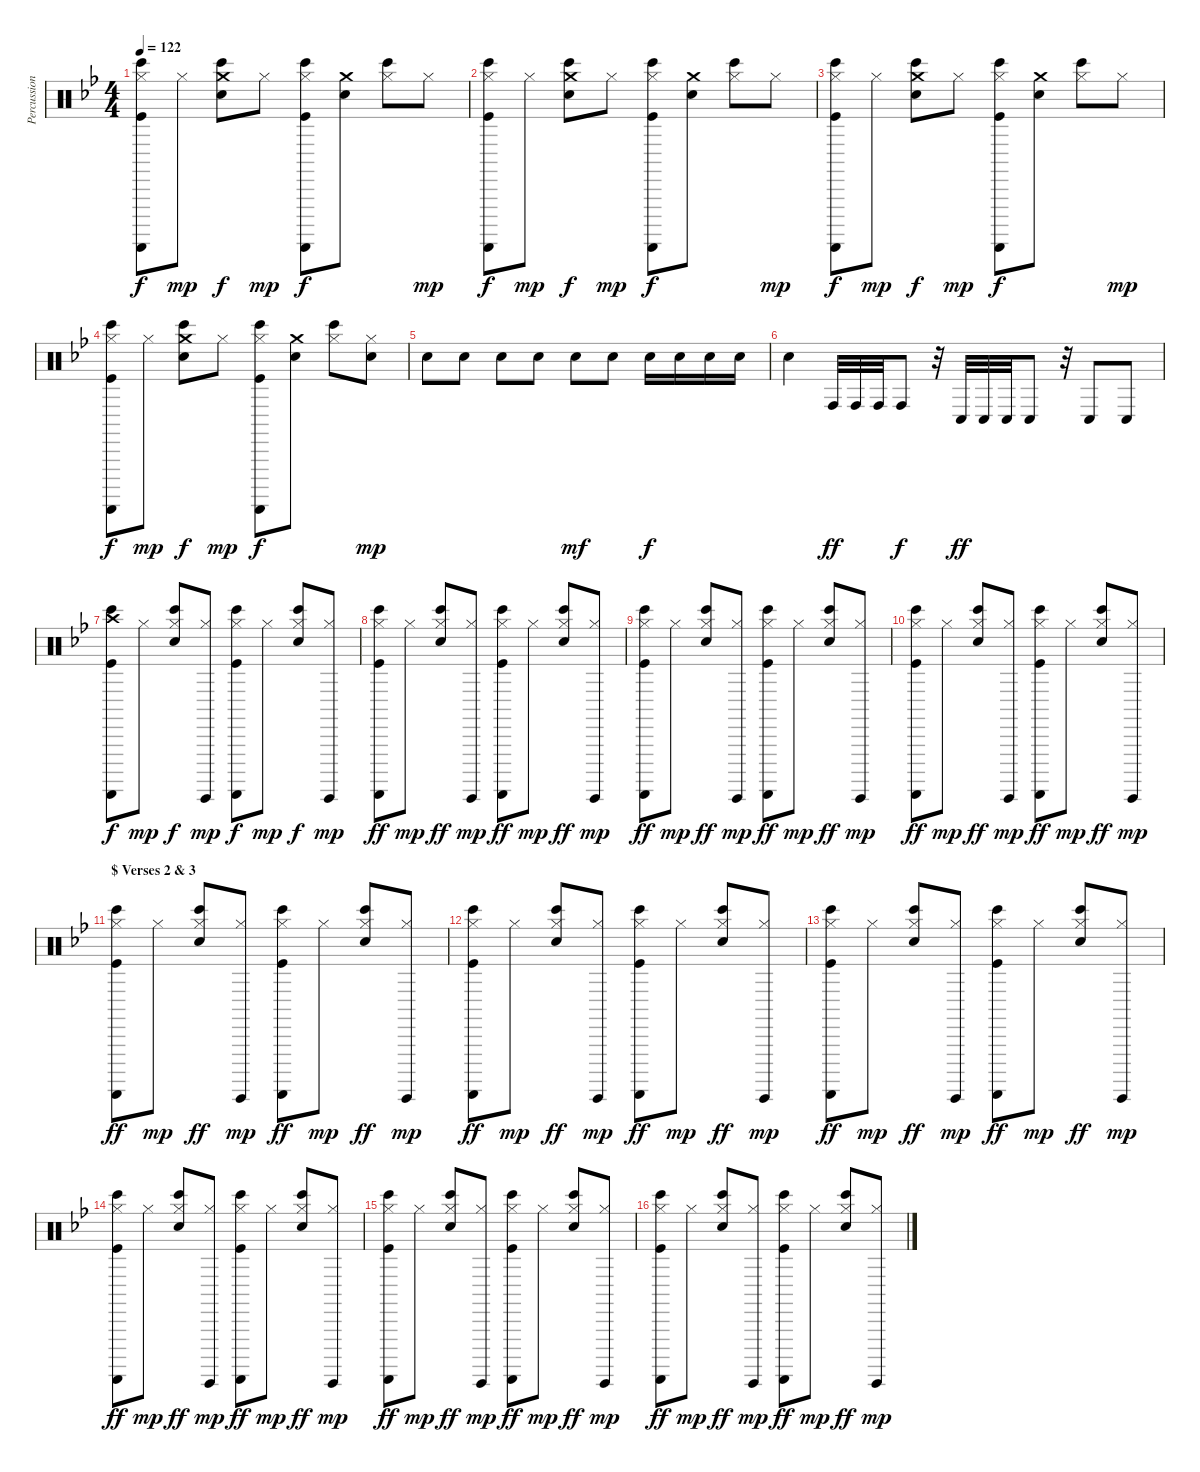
\track ("Percussions" "Percussion") {instrument percussion}
\staff {score}
\articulation defaults
\ts (4 4)
\tempo 122
\clef neutral
\ks bb
("Hi-Hat (closed)" "Bongo High (hit)" "Guiro (scrap-return)" "Kick (hit)").8{dy f} "Hi-Hat (closed)".8{dy mp} ("Crash medium (hit)" "Bongo High (hit)" "Snare (hit) 2").8{dy f} "Hi-Hat (closed)".8{dy mp} ("Hi-Hat (closed)" "Bongo High (hit)" "Guiro (scrap-return)" "Kick (hit)").8{dy f} ("Crash medium (hit)" "Snare (hit) 2").8 ("Hi-Hat (closed)" "Bongo High (hit)").8 "Hi-Hat (closed)".8{dy mp} |
("Hi-Hat (closed)" "Bongo High (hit)" "Guiro (scrap-return)" "Kick (hit)").8{dy f} "Hi-Hat (closed)".8{dy mp} ("Crash medium (hit)" "Bongo High (hit)" "Snare (hit) 2").8{dy f} "Hi-Hat (closed)".8{dy mp} ("Hi-Hat (closed)" "Bongo High (hit)" "Guiro (scrap-return)" "Kick (hit)").8{dy f} ("Crash medium (hit)" "Snare (hit) 2").8 ("Hi-Hat (closed)" "Bongo High (hit)").8 "Hi-Hat (closed)".8{dy mp} |
("Hi-Hat (closed)" "Bongo High (hit)" "Guiro (scrap-return)" "Kick (hit)").8{dy f} "Hi-Hat (closed)".8{dy mp} ("Crash medium (hit)" "Bongo High (hit)" "Snare (hit) 2").8{dy f} "Hi-Hat (closed)".8{dy mp} ("Hi-Hat (closed)" "Bongo High (hit)" "Guiro (scrap-return)" "Kick (hit)").8{dy f} ("Crash medium (hit)" "Snare (hit) 2").8 ("Hi-Hat (closed)" "Bongo High (hit)").8 "Hi-Hat (closed)".8{dy mp} |
("Hi-Hat (closed)" "Bongo High (hit)" "Guiro (scrap-return)" "Kick (hit)").8{dy f} "Hi-Hat (closed)".8{dy mp} ("Crash medium (hit)" "Bongo High (hit)" "Snare (hit) 2").8{dy f} "Hi-Hat (closed)".8{dy mp} ("Hi-Hat (closed)" "Bongo High (hit)" "Guiro (scrap-return)" "Kick (hit)").8{dy f} ("Crash medium (hit)" "Snare (hit) 2").8 ("Hi-Hat (closed)" "Bongo High (hit)").8 ("Hi-Hat (closed)" "Snare (hit) 2").8{dy mp} |
"Snare (hit) 2".8 "Snare (hit) 2".8 "Snare (hit) 2".8 "Snare (hit) 2".8 "Snare (hit) 2".8{dy mf} "Snare (hit) 2".8 "Snare (hit) 2".16{dy f} "Snare (hit) 2".16 "Snare (hit) 2".16 "Snare (hit) 2".16 |
"Snare (hit) 2".4 "Conga high (hit)".32{dy ff balance 0} "Conga high (hit)".32 "Conga high (hit)".32 "Conga high (hit)".8{dy f} r.32 "Conga low (hit)".32{dy ff balance 16} "Conga low (hit)".32 "Conga low (hit)".32 "Conga low (hit)".8 r.32 "Conga low (hit)".8{balance 8} "Conga low (hit)".8 |
("Crash high (hit)" "Bongo High (hit)" "Guiro (scrap-return)" "Kick (hit)").8{dy f} "Hi-Hat (closed)".8{dy mp} ("Hi-Hat (closed)" "Bongo High (hit)" "Snare (hit) 2").8{dy f} ("Hi-Hat (closed)" "Guiro (hit)").8{dy mp} ("Hi-Hat (closed)" "Bongo High (hit)" "Guiro (scrap-return)" "Kick (hit)").8{dy f} "Hi-Hat (closed)".8{dy mp} ("Hi-Hat (closed)" "Bongo High (hit)" "Snare (hit) 2").8{dy f} ("Hi-Hat (closed)" "Guiro (hit)").8{dy mp} |
("Hi-Hat (closed)" "Bongo High (hit)" "Guiro (scrap-return)" "Kick (hit)").8{dy ff} "Hi-Hat (closed)".8{dy mp} ("Hi-Hat (closed)" "Bongo High (hit)" "Snare (hit) 2").8{dy ff} ("Hi-Hat (closed)" "Guiro (hit)").8{dy mp} ("Hi-Hat (closed)" "Bongo High (hit)" "Guiro (scrap-return)" "Kick (hit)").8{dy ff} "Hi-Hat (closed)".8{dy mp} ("Hi-Hat (closed)" "Bongo High (hit)" "Snare (hit) 2").8{dy ff} ("Hi-Hat (closed)" "Guiro (hit)").8{dy mp} |
("Hi-Hat (closed)" "Bongo High (hit)" "Guiro (scrap-return)" "Kick (hit)").8{dy ff} "Hi-Hat (closed)".8{dy mp} ("Hi-Hat (closed)" "Bongo High (hit)" "Snare (hit) 2").8{dy ff} ("Hi-Hat (closed)" "Guiro (hit)").8{dy mp} ("Hi-Hat (closed)" "Bongo High (hit)" "Guiro (scrap-return)" "Kick (hit)").8{dy ff} "Hi-Hat (closed)".8{dy mp} ("Hi-Hat (closed)" "Bongo High (hit)" "Snare (hit) 2").8{dy ff} ("Hi-Hat (closed)" "Guiro (hit)").8{dy mp} |
("Hi-Hat (closed)" "Bongo High (hit)" "Guiro (scrap-return)" "Kick (hit)").8{dy ff} "Hi-Hat (closed)".8{dy mp} ("Hi-Hat (closed)" "Bongo High (hit)" "Snare (hit) 2").8{dy ff} ("Hi-Hat (closed)" "Guiro (hit)").8{dy mp} ("Hi-Hat (closed)" "Bongo High (hit)" "Guiro (scrap-return)" "Kick (hit)").8{dy ff} "Hi-Hat (closed)".8{dy mp} ("Hi-Hat (closed)" "Bongo High (hit)" "Snare (hit) 2").8{dy ff} ("Hi-Hat (closed)" "Guiro (hit)").8{dy mp} |
\section ("" "$ Verses 2 & 3")
("Hi-Hat (closed)" "Bongo High (hit)" "Guiro (scrap-return)" "Kick (hit)").8{dy ff} "Hi-Hat (closed)".8{dy mp} ("Hi-Hat (closed)" "Bongo High (hit)" "Snare (hit) 2").8{dy ff} ("Hi-Hat (closed)" "Guiro (hit)").8{dy mp} ("Hi-Hat (closed)" "Bongo High (hit)" "Guiro (scrap-return)" "Kick (hit)").8{dy ff} "Hi-Hat (closed)".8{dy mp} ("Hi-Hat (closed)" "Bongo High (hit)" "Snare (hit) 2").8{dy ff} ("Hi-Hat (closed)" "Guiro (hit)").8{dy mp} |
("Hi-Hat (closed)" "Bongo High (hit)" "Guiro (scrap-return)" "Kick (hit)").8{dy ff} "Hi-Hat (closed)".8{dy mp} ("Hi-Hat (closed)" "Bongo High (hit)" "Snare (hit) 2").8{dy ff} ("Hi-Hat (closed)" "Guiro (hit)").8{dy mp} ("Hi-Hat (closed)" "Bongo High (hit)" "Guiro (scrap-return)" "Kick (hit)").8{dy ff} "Hi-Hat (closed)".8{dy mp} ("Hi-Hat (closed)" "Bongo High (hit)" "Snare (hit) 2").8{dy ff} ("Hi-Hat (closed)" "Guiro (hit)").8{dy mp} |
("Hi-Hat (closed)" "Bongo High (hit)" "Guiro (scrap-return)" "Kick (hit)").8{dy ff} "Hi-Hat (closed)".8{dy mp} ("Hi-Hat (closed)" "Bongo High (hit)" "Snare (hit) 2").8{dy ff} ("Hi-Hat (closed)" "Guiro (hit)").8{dy mp} ("Hi-Hat (closed)" "Bongo High (hit)" "Guiro (scrap-return)" "Kick (hit)").8{dy ff} "Hi-Hat (closed)".8{dy mp} ("Hi-Hat (closed)" "Bongo High (hit)" "Snare (hit) 2").8{dy ff} ("Hi-Hat (closed)" "Guiro (hit)").8{dy mp} |
("Hi-Hat (closed)" "Bongo High (hit)" "Guiro (scrap-return)" "Kick (hit)").8{dy ff} "Hi-Hat (closed)".8{dy mp} ("Hi-Hat (closed)" "Bongo High (hit)" "Snare (hit) 2").8{dy ff} ("Hi-Hat (closed)" "Guiro (hit)").8{dy mp} ("Hi-Hat (closed)" "Bongo High (hit)" "Guiro (scrap-return)" "Kick (hit)").8{dy ff} "Hi-Hat (closed)".8{dy mp} ("Hi-Hat (closed)" "Bongo High (hit)" "Snare (hit) 2").8{dy ff} ("Hi-Hat (closed)" "Guiro (hit)").8{dy mp} |
("Hi-Hat (closed)" "Bongo High (hit)" "Guiro (scrap-return)" "Kick (hit)").8{dy ff} "Hi-Hat (closed)".8{dy mp} ("Hi-Hat (closed)" "Bongo High (hit)" "Snare (hit) 2").8{dy ff} ("Hi-Hat (closed)" "Guiro (hit)").8{dy mp} ("Hi-Hat (closed)" "Bongo High (hit)" "Guiro (scrap-return)" "Kick (hit)").8{dy ff} "Hi-Hat (closed)".8{dy mp} ("Hi-Hat (closed)" "Bongo High (hit)" "Snare (hit) 2").8{dy ff} ("Hi-Hat (closed)" "Guiro (hit)").8{dy mp} |
("Hi-Hat (closed)" "Bongo High (hit)" "Guiro (scrap-return)" "Kick (hit)").8{dy ff} "Hi-Hat (closed)".8{dy mp} ("Hi-Hat (closed)" "Bongo High (hit)" "Snare (hit) 2").8{dy ff} ("Hi-Hat (closed)" "Guiro (hit)").8{dy mp} ("Hi-Hat (closed)" "Bongo High (hit)" "Guiro (scrap-return)" "Kick (hit)").8{dy ff} "Hi-Hat (closed)".8{dy mp} ("Hi-Hat (closed)" "Bongo High (hit)" "Snare (hit) 2").8{dy ff} ("Hi-Hat (closed)" "Guiro (hit)").8{dy mp}
